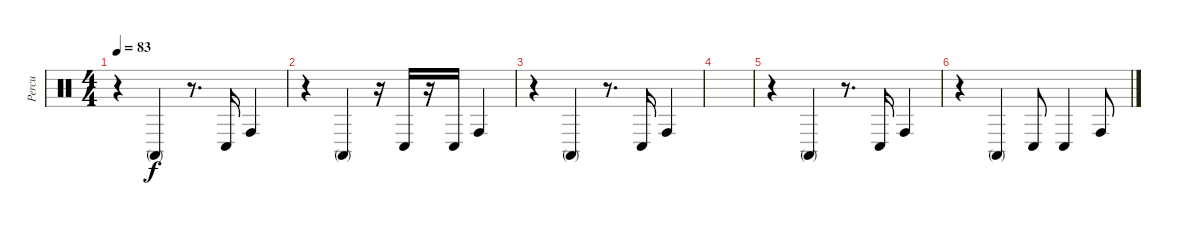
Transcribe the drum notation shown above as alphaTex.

\track ("Percu" "Percu") {instrument percussion}
\staff {score}
\articulation defaults
\ts (4 4)
\tempo 83
\clef neutral
\ks c
r.4{dy f} "Conga high (mute)".4 r.8{d} "Conga low (hit)".16 "Conga high (hit)".4 |
r.4 "Conga high (mute)".4 r.16 "Conga low (hit)".16 r.16 "Conga low (hit)".16 "Conga high (hit)".4 |
r.4 "Conga high (mute)".4 r.8{d} "Conga low (hit)".16 "Conga high (hit)".4 |
|
r.4 "Conga high (mute)".4 r.8{d} "Conga low (hit)".16 "Conga high (hit)".4 |
r.4 "Conga high (mute)".4 "Conga low (hit)".8 "Conga low (hit)".4 "Conga high (hit)".8
